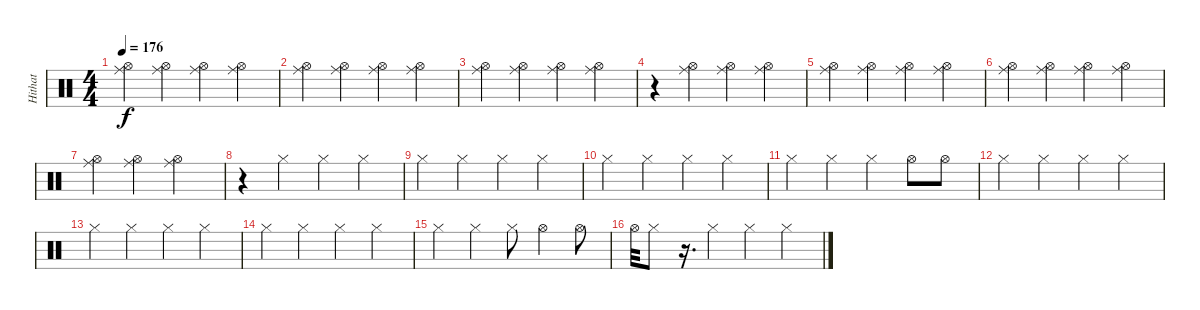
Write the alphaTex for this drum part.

\track ("Hithat" "Hithat") {instrument percussion}
\staff {score}
\articulation defaults
\ts (4 4)
\tempo 176
\clef neutral
\ks c
("Hi-Hat (open)" "Ride (middle)").4{dy f} ("Hi-Hat (open)" "Ride (middle)").4 ("Hi-Hat (open)" "Ride (middle)").4 ("Hi-Hat (open)" "Ride (middle)").4 |
("Hi-Hat (open)" "Ride (middle)").4 ("Hi-Hat (open)" "Ride (middle)").4 ("Hi-Hat (open)" "Ride (middle)").4 ("Hi-Hat (open)" "Ride (middle)").4 |
("Hi-Hat (open)" "Ride (middle)").4 ("Hi-Hat (open)" "Ride (middle)").4 ("Hi-Hat (open)" "Ride (middle)").4 ("Hi-Hat (open)" "Ride (middle)").4 |
r.4 ("Hi-Hat (open)" "Ride (middle)").4 ("Hi-Hat (open)" "Ride (middle)").4 ("Hi-Hat (open)" "Ride (middle)").4 |
("Hi-Hat (open)" "Ride (middle)").4 ("Hi-Hat (open)" "Ride (middle)").4 ("Hi-Hat (open)" "Ride (middle)").4 ("Hi-Hat (open)" "Ride (middle)").4 |
("Hi-Hat (open)" "Ride (middle)").4 ("Hi-Hat (open)" "Ride (middle)").4 ("Hi-Hat (open)" "Ride (middle)").4 ("Hi-Hat (open)" "Ride (middle)").4 |
("Hi-Hat (open)" "Ride (middle)").4 ("Hi-Hat (open)" "Ride (middle)").4 ("Hi-Hat (open)" "Ride (middle)").2 |
r.4 "Hi-Hat (closed)".4 "Hi-Hat (closed)".4 "Hi-Hat (closed)".4 |
"Hi-Hat (closed)".4 "Hi-Hat (closed)".4 "Hi-Hat (closed)".4 "Hi-Hat (closed)".4 |
"Hi-Hat (closed)".4 "Hi-Hat (closed)".4 "Hi-Hat (closed)".4 "Hi-Hat (closed)".4 |
"Hi-Hat (closed)".4 "Hi-Hat (closed)".4 "Hi-Hat (closed)".4 "Hi-Hat (open)".8 "Hi-Hat (open)".8 |
"Hi-Hat (closed)".4 "Hi-Hat (closed)".4 "Hi-Hat (closed)".4 "Hi-Hat (closed)".4 |
"Hi-Hat (closed)".4 "Hi-Hat (closed)".4 "Hi-Hat (closed)".4 "Hi-Hat (closed)".4 |
"Hi-Hat (closed)".4 "Hi-Hat (closed)".4 "Hi-Hat (closed)".4 "Hi-Hat (closed)".4 |
"Hi-Hat (closed)".4 "Hi-Hat (closed)".4 "Hi-Hat (closed)".8 "Hi-Hat (open)".4 "Hi-Hat (open)".8 |
"Hi-Hat (open)".32 "Hi-Hat (closed)".8 r.16{d} "Hi-Hat (closed)".4 "Hi-Hat (closed)".4 "Hi-Hat (closed)".4
